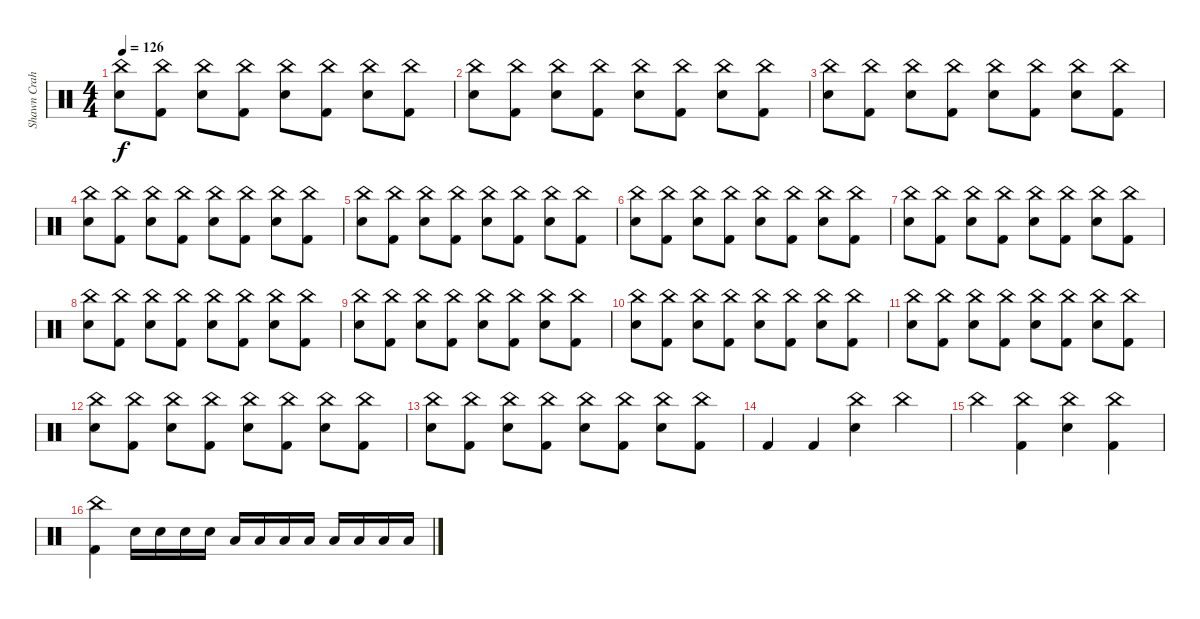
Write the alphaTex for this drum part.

\track ("Shawn Crahan" "Shawn Crah") {instrument percussion}
\staff {score}
\articulation defaults
\ts (4 4)
\tempo 126
\clef neutral
\ks c
("China (hit)" "Snare (hit) 2").8{dy f} ("China (hit)" "Kick (hit) 2").8 ("China (hit)" "Snare (hit) 2").8 ("China (hit)" "Kick (hit) 2").8 ("China (hit)" "Snare (hit) 2").8 ("China (hit)" "Kick (hit) 2").8 ("China (hit)" "Snare (hit) 2").8 ("China (hit)" "Kick (hit) 2").8 |
("China (hit)" "Snare (hit) 2").8 ("China (hit)" "Kick (hit) 2").8 ("China (hit)" "Snare (hit) 2").8 ("China (hit)" "Kick (hit) 2").8 ("China (hit)" "Snare (hit) 2").8 ("China (hit)" "Kick (hit) 2").8 ("China (hit)" "Snare (hit) 2").8 ("China (hit)" "Kick (hit) 2").8 |
("China (hit)" "Snare (hit) 2").8 ("China (hit)" "Kick (hit) 2").8 ("China (hit)" "Snare (hit) 2").8 ("China (hit)" "Kick (hit) 2").8 ("China (hit)" "Snare (hit) 2").8 ("China (hit)" "Kick (hit) 2").8 ("China (hit)" "Snare (hit) 2").8 ("China (hit)" "Kick (hit) 2").8 |
("China (hit)" "Snare (hit) 2").8 ("China (hit)" "Kick (hit) 2").8 ("China (hit)" "Snare (hit) 2").8 ("China (hit)" "Kick (hit) 2").8 ("China (hit)" "Snare (hit) 2").8 ("China (hit)" "Kick (hit) 2").8 ("China (hit)" "Snare (hit) 2").8 ("China (hit)" "Kick (hit) 2").8 |
("China (hit)" "Snare (hit) 2").8 ("China (hit)" "Kick (hit) 2").8 ("China (hit)" "Snare (hit) 2").8 ("China (hit)" "Kick (hit) 2").8 ("China (hit)" "Snare (hit) 2").8 ("China (hit)" "Kick (hit) 2").8 ("China (hit)" "Snare (hit) 2").8 ("China (hit)" "Kick (hit) 2").8 |
("China (hit)" "Snare (hit) 2").8 ("China (hit)" "Kick (hit) 2").8 ("China (hit)" "Snare (hit) 2").8 ("China (hit)" "Kick (hit) 2").8 ("China (hit)" "Snare (hit) 2").8 ("China (hit)" "Kick (hit) 2").8 ("China (hit)" "Snare (hit) 2").8 ("China (hit)" "Kick (hit) 2").8 |
("China (hit)" "Snare (hit) 2").8 ("China (hit)" "Kick (hit) 2").8 ("China (hit)" "Snare (hit) 2").8 ("China (hit)" "Kick (hit) 2").8 ("China (hit)" "Snare (hit) 2").8 ("China (hit)" "Kick (hit) 2").8 ("China (hit)" "Snare (hit) 2").8 ("China (hit)" "Kick (hit) 2").8 |
("China (hit)" "Snare (hit) 2").8 ("China (hit)" "Kick (hit) 2").8 ("China (hit)" "Snare (hit) 2").8 ("China (hit)" "Kick (hit) 2").8 ("China (hit)" "Snare (hit) 2").8 ("China (hit)" "Kick (hit) 2").8 ("China (hit)" "Snare (hit) 2").8 ("China (hit)" "Kick (hit) 2").8 |
("China (hit)" "Snare (hit) 2").8 ("China (hit)" "Kick (hit) 2").8 ("China (hit)" "Snare (hit) 2").8 ("China (hit)" "Kick (hit) 2").8 ("China (hit)" "Snare (hit) 2").8 ("China (hit)" "Kick (hit) 2").8 ("China (hit)" "Snare (hit) 2").8 ("China (hit)" "Kick (hit) 2").8 |
("China (hit)" "Snare (hit) 2").8 ("China (hit)" "Kick (hit) 2").8 ("China (hit)" "Snare (hit) 2").8 ("China (hit)" "Kick (hit) 2").8 ("China (hit)" "Snare (hit) 2").8 ("China (hit)" "Kick (hit) 2").8 ("China (hit)" "Snare (hit) 2").8 ("China (hit)" "Kick (hit) 2").8 |
("China (hit)" "Snare (hit) 2").8 ("China (hit)" "Kick (hit) 2").8 ("China (hit)" "Snare (hit) 2").8 ("China (hit)" "Kick (hit) 2").8 ("China (hit)" "Snare (hit) 2").8 ("China (hit)" "Kick (hit) 2").8 ("China (hit)" "Snare (hit) 2").8 ("China (hit)" "Kick (hit) 2").8 |
("China (hit)" "Snare (hit) 2").8 ("China (hit)" "Kick (hit) 2").8 ("China (hit)" "Snare (hit) 2").8 ("China (hit)" "Kick (hit) 2").8 ("China (hit)" "Snare (hit) 2").8 ("China (hit)" "Kick (hit) 2").8 ("China (hit)" "Snare (hit) 2").8 ("China (hit)" "Kick (hit) 2").8 |
("China (hit)" "Snare (hit) 2").8 ("China (hit)" "Kick (hit) 2").8 ("China (hit)" "Snare (hit) 2").8 ("China (hit)" "Kick (hit) 2").8 ("China (hit)" "Snare (hit) 2").8 ("China (hit)" "Kick (hit) 2").8 ("China (hit)" "Snare (hit) 2").8 ("China (hit)" "Kick (hit) 2").8 |
"Kick (hit) 2".4 "Kick (hit) 2".4 ("China (hit)" "Snare (hit) 2").4 "China (hit)".4 |
"China (hit)".4 ("China (hit)" "Kick (hit) 2").4 ("China (hit)" "Snare (hit) 2").4 ("China (hit)" "Kick (hit) 2").4 |
("China (hit)" "Kick (hit) 2").4 "Snare (hit) 2".16 "Snare (hit) 2".16 "Snare (hit) 2".16 "Snare (hit) 2".16 "Low Tom (hit)".16 "Low Tom (hit)".16 "Low Tom (hit)".16 "Low Tom (hit)".16 "Low Tom (hit)".16 "Low Tom (hit)".16 "Low Tom (hit)".16 "Low Tom (hit)".16
